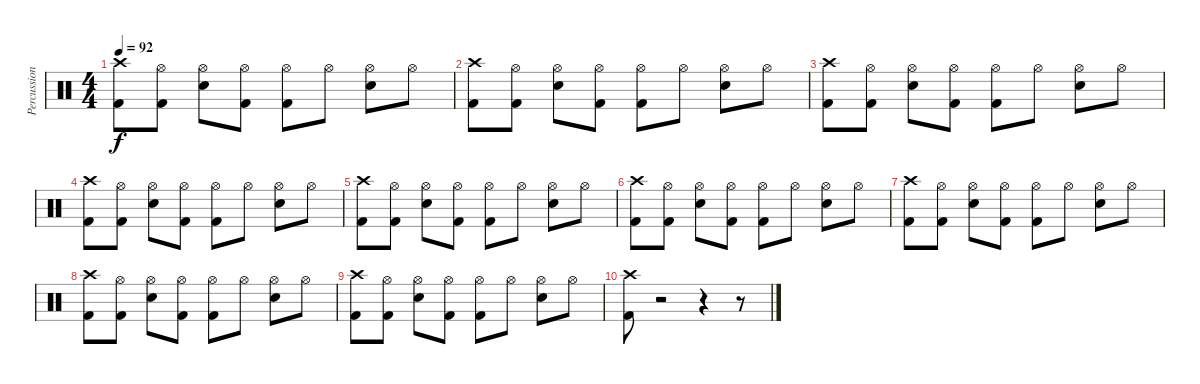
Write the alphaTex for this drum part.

\track ("Percussion" "Percussion") {instrument percussion}
\staff {score}
\articulation defaults
\ts (4 4)
\tempo 92
\clef neutral
\ks c
("Crash high (hit)" "Kick (hit) 2").8{dy f} ("Hi-Hat (open)" "Kick (hit) 2").8 ("Hi-Hat (open)" "Electric Snare (hit)").8 ("Hi-Hat (open)" "Kick (hit) 2").8 ("Hi-Hat (open)" "Kick (hit) 2").8 "Hi-Hat (open)".8 ("Hi-Hat (open)" "Electric Snare (hit)").8 "Hi-Hat (open)".8 |
("Crash high (hit)" "Kick (hit) 2").8 ("Hi-Hat (open)" "Kick (hit) 2").8 ("Hi-Hat (open)" "Electric Snare (hit)").8 ("Hi-Hat (open)" "Kick (hit) 2").8 ("Hi-Hat (open)" "Kick (hit) 2").8 "Hi-Hat (open)".8 ("Hi-Hat (open)" "Electric Snare (hit)").8 "Hi-Hat (open)".8 |
("Crash high (hit)" "Kick (hit) 2").8 ("Hi-Hat (open)" "Kick (hit) 2").8 ("Hi-Hat (open)" "Electric Snare (hit)").8 ("Hi-Hat (open)" "Kick (hit) 2").8 ("Hi-Hat (open)" "Kick (hit) 2").8 "Hi-Hat (open)".8 ("Hi-Hat (open)" "Electric Snare (hit)").8 "Hi-Hat (open)".8 |
("Crash high (hit)" "Kick (hit) 2").8 ("Hi-Hat (open)" "Kick (hit) 2").8 ("Hi-Hat (open)" "Electric Snare (hit)").8 ("Hi-Hat (open)" "Kick (hit) 2").8 ("Hi-Hat (open)" "Kick (hit) 2").8 "Hi-Hat (open)".8 ("Hi-Hat (open)" "Electric Snare (hit)").8 "Hi-Hat (open)".8 |
("Crash high (hit)" "Kick (hit) 2").8 ("Hi-Hat (open)" "Kick (hit) 2").8 ("Hi-Hat (open)" "Electric Snare (hit)").8 ("Hi-Hat (open)" "Kick (hit) 2").8 ("Hi-Hat (open)" "Kick (hit) 2").8 "Hi-Hat (open)".8 ("Hi-Hat (open)" "Electric Snare (hit)").8 "Hi-Hat (open)".8 |
("Crash high (hit)" "Kick (hit) 2").8 ("Hi-Hat (open)" "Kick (hit) 2").8 ("Hi-Hat (open)" "Electric Snare (hit)").8 ("Hi-Hat (open)" "Kick (hit) 2").8 ("Hi-Hat (open)" "Kick (hit) 2").8 "Hi-Hat (open)".8 ("Hi-Hat (open)" "Electric Snare (hit)").8 "Hi-Hat (open)".8 |
("Crash high (hit)" "Kick (hit) 2").8 ("Hi-Hat (open)" "Kick (hit) 2").8 ("Hi-Hat (open)" "Electric Snare (hit)").8 ("Hi-Hat (open)" "Kick (hit) 2").8 ("Hi-Hat (open)" "Kick (hit) 2").8 "Hi-Hat (open)".8 ("Hi-Hat (open)" "Electric Snare (hit)").8 "Hi-Hat (open)".8 |
("Crash high (hit)" "Kick (hit) 2").8 ("Hi-Hat (open)" "Kick (hit) 2").8 ("Hi-Hat (open)" "Electric Snare (hit)").8 ("Hi-Hat (open)" "Kick (hit) 2").8 ("Hi-Hat (open)" "Kick (hit) 2").8 "Hi-Hat (open)".8 ("Hi-Hat (open)" "Electric Snare (hit)").8 "Hi-Hat (open)".8 |
("Crash high (hit)" "Kick (hit) 2").8 ("Hi-Hat (open)" "Kick (hit) 2").8 ("Hi-Hat (open)" "Electric Snare (hit)").8 ("Hi-Hat (open)" "Kick (hit) 2").8 ("Hi-Hat (open)" "Kick (hit) 2").8 "Hi-Hat (open)".8 ("Hi-Hat (open)" "Electric Snare (hit)").8 "Hi-Hat (open)".8 |
("Crash high (hit)" "Kick (hit) 2").8 r.2 r.4 r.8
